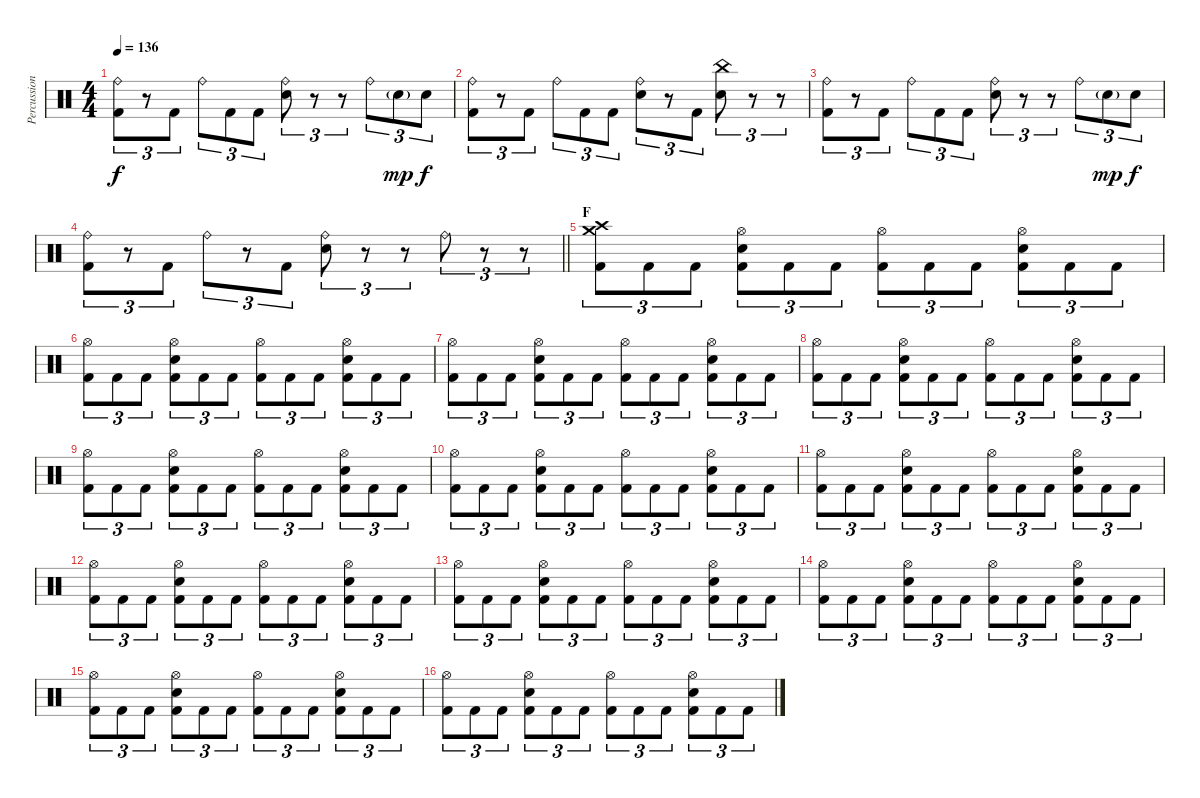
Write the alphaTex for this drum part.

\track ("Percussion" "Percussion") {instrument percussion}
\staff {score}
\articulation defaults
\ts (4 4)
\tempo 136
\clef neutral
\ks c
("Ride (bell)" "Kick (hit) 2").8{tu (3 2) dy f} r.8{tu (3 2)} "Kick (hit) 2".8{tu (3 2)} "Ride (bell)".8{tu (3 2)} "Kick (hit) 2".8{tu (3 2)} "Kick (hit) 2".8{tu (3 2)} ("Ride (bell)" "Electric Snare (hit)").8{tu (3 2)} r.8{tu (3 2)} r.8{tu (3 2)} "Ride (bell)".8{tu (3 2)} "Electric Snare (hit)"{g}.8{tu (3 2) dy mp} "Electric Snare (hit)".8{tu (3 2) dy f} |
("Ride (bell)" "Kick (hit) 2").8{tu (3 2)} r.8{tu (3 2)} "Kick (hit) 2".8{tu (3 2)} "Ride (bell)".8{tu (3 2)} "Kick (hit) 2".8{tu (3 2)} "Kick (hit) 2".8{tu (3 2)} ("Ride (bell)" "Electric Snare (hit)").8{tu (3 2)} r.8{tu (3 2)} "Kick (hit) 2".8{tu (3 2)} ("China (hit)" "Electric Snare (hit)").8{tu (3 2)} r.8{tu (3 2)} r.8{tu (3 2)} |
("Ride (bell)" "Kick (hit) 2").8{tu (3 2)} r.8{tu (3 2)} "Kick (hit) 2".8{tu (3 2)} "Ride (bell)".8{tu (3 2)} "Kick (hit) 2".8{tu (3 2)} "Kick (hit) 2".8{tu (3 2)} ("Ride (bell)" "Electric Snare (hit)").8{tu (3 2)} r.8{tu (3 2)} r.8{tu (3 2)} "Ride (bell)".8{tu (3 2)} "Electric Snare (hit)"{g}.8{tu (3 2) dy mp} "Electric Snare (hit)".8{tu (3 2) dy f} |
\barLineRight lightlight
("Ride (bell)" "Kick (hit) 2").8{tu (3 2)} r.8{tu (3 2)} "Kick (hit) 2".8{tu (3 2)} "Ride (bell)".8{tu (3 2)} r.8{tu (3 2)} "Kick (hit) 2".8{tu (3 2)} ("Ride (bell)" "Electric Snare (hit)").8{tu (3 2)} r.8{tu (3 2)} r.8{tu (3 2)} "Ride (bell)".8{tu (3 2)} r.8{tu (3 2)} r.8{tu (3 2)} |
\section ("" "F")
("Crash medium (hit)" "Crash high (hit)" "Kick (hit) 2").8{tu (3 2)} "Kick (hit) 2".8{tu (3 2)} "Kick (hit) 2".8{tu (3 2)} ("Hi-Hat (open)" "Electric Snare (hit)" "Kick (hit) 2").8{tu (3 2)} "Kick (hit) 2".8{tu (3 2)} "Kick (hit) 2".8{tu (3 2)} ("Hi-Hat (open)" "Kick (hit) 2").8{tu (3 2)} "Kick (hit) 2".8{tu (3 2)} "Kick (hit) 2".8{tu (3 2)} ("Hi-Hat (open)" "Electric Snare (hit)" "Kick (hit) 2").8{tu (3 2)} "Kick (hit) 2".8{tu (3 2)} "Kick (hit) 2".8{tu (3 2)} |
("Hi-Hat (open)" "Kick (hit) 2").8{tu (3 2)} "Kick (hit) 2".8{tu (3 2)} "Kick (hit) 2".8{tu (3 2)} ("Hi-Hat (open)" "Electric Snare (hit)" "Kick (hit) 2").8{tu (3 2)} "Kick (hit) 2".8{tu (3 2)} "Kick (hit) 2".8{tu (3 2)} ("Hi-Hat (open)" "Kick (hit) 2").8{tu (3 2)} "Kick (hit) 2".8{tu (3 2)} "Kick (hit) 2".8{tu (3 2)} ("Hi-Hat (open)" "Electric Snare (hit)" "Kick (hit) 2").8{tu (3 2)} "Kick (hit) 2".8{tu (3 2)} "Kick (hit) 2".8{tu (3 2)} |
("Hi-Hat (open)" "Kick (hit) 2").8{tu (3 2)} "Kick (hit) 2".8{tu (3 2)} "Kick (hit) 2".8{tu (3 2)} ("Hi-Hat (open)" "Electric Snare (hit)" "Kick (hit) 2").8{tu (3 2)} "Kick (hit) 2".8{tu (3 2)} "Kick (hit) 2".8{tu (3 2)} ("Hi-Hat (open)" "Kick (hit) 2").8{tu (3 2)} "Kick (hit) 2".8{tu (3 2)} "Kick (hit) 2".8{tu (3 2)} ("Hi-Hat (open)" "Electric Snare (hit)" "Kick (hit) 2").8{tu (3 2)} "Kick (hit) 2".8{tu (3 2)} "Kick (hit) 2".8{tu (3 2)} |
("Hi-Hat (open)" "Kick (hit) 2").8{tu (3 2)} "Kick (hit) 2".8{tu (3 2)} "Kick (hit) 2".8{tu (3 2)} ("Hi-Hat (open)" "Electric Snare (hit)" "Kick (hit) 2").8{tu (3 2)} "Kick (hit) 2".8{tu (3 2)} "Kick (hit) 2".8{tu (3 2)} ("Hi-Hat (open)" "Kick (hit) 2").8{tu (3 2)} "Kick (hit) 2".8{tu (3 2)} "Kick (hit) 2".8{tu (3 2)} ("Hi-Hat (open)" "Electric Snare (hit)" "Kick (hit) 2").8{tu (3 2)} "Kick (hit) 2".8{tu (3 2)} "Kick (hit) 2".8{tu (3 2)} |
("Hi-Hat (open)" "Kick (hit) 2").8{tu (3 2)} "Kick (hit) 2".8{tu (3 2)} "Kick (hit) 2".8{tu (3 2)} ("Hi-Hat (open)" "Electric Snare (hit)" "Kick (hit) 2").8{tu (3 2)} "Kick (hit) 2".8{tu (3 2)} "Kick (hit) 2".8{tu (3 2)} ("Hi-Hat (open)" "Kick (hit) 2").8{tu (3 2)} "Kick (hit) 2".8{tu (3 2)} "Kick (hit) 2".8{tu (3 2)} ("Hi-Hat (open)" "Electric Snare (hit)" "Kick (hit) 2").8{tu (3 2)} "Kick (hit) 2".8{tu (3 2)} "Kick (hit) 2".8{tu (3 2)} |
("Hi-Hat (open)" "Kick (hit) 2").8{tu (3 2)} "Kick (hit) 2".8{tu (3 2)} "Kick (hit) 2".8{tu (3 2)} ("Hi-Hat (open)" "Electric Snare (hit)" "Kick (hit) 2").8{tu (3 2)} "Kick (hit) 2".8{tu (3 2)} "Kick (hit) 2".8{tu (3 2)} ("Hi-Hat (open)" "Kick (hit) 2").8{tu (3 2)} "Kick (hit) 2".8{tu (3 2)} "Kick (hit) 2".8{tu (3 2)} ("Hi-Hat (open)" "Electric Snare (hit)" "Kick (hit) 2").8{tu (3 2)} "Kick (hit) 2".8{tu (3 2)} "Kick (hit) 2".8{tu (3 2)} |
("Hi-Hat (open)" "Kick (hit) 2").8{tu (3 2)} "Kick (hit) 2".8{tu (3 2)} "Kick (hit) 2".8{tu (3 2)} ("Hi-Hat (open)" "Electric Snare (hit)" "Kick (hit) 2").8{tu (3 2)} "Kick (hit) 2".8{tu (3 2)} "Kick (hit) 2".8{tu (3 2)} ("Hi-Hat (open)" "Kick (hit) 2").8{tu (3 2)} "Kick (hit) 2".8{tu (3 2)} "Kick (hit) 2".8{tu (3 2)} ("Hi-Hat (open)" "Electric Snare (hit)" "Kick (hit) 2").8{tu (3 2)} "Kick (hit) 2".8{tu (3 2)} "Kick (hit) 2".8{tu (3 2)} |
("Hi-Hat (open)" "Kick (hit) 2").8{tu (3 2)} "Kick (hit) 2".8{tu (3 2)} "Kick (hit) 2".8{tu (3 2)} ("Hi-Hat (open)" "Electric Snare (hit)" "Kick (hit) 2").8{tu (3 2)} "Kick (hit) 2".8{tu (3 2)} "Kick (hit) 2".8{tu (3 2)} ("Hi-Hat (open)" "Kick (hit) 2").8{tu (3 2)} "Kick (hit) 2".8{tu (3 2)} "Kick (hit) 2".8{tu (3 2)} ("Hi-Hat (open)" "Electric Snare (hit)" "Kick (hit) 2").8{tu (3 2)} "Kick (hit) 2".8{tu (3 2)} "Kick (hit) 2".8{tu (3 2)} |
("Hi-Hat (open)" "Kick (hit) 2").8{tu (3 2)} "Kick (hit) 2".8{tu (3 2)} "Kick (hit) 2".8{tu (3 2)} ("Hi-Hat (open)" "Electric Snare (hit)" "Kick (hit) 2").8{tu (3 2)} "Kick (hit) 2".8{tu (3 2)} "Kick (hit) 2".8{tu (3 2)} ("Hi-Hat (open)" "Kick (hit) 2").8{tu (3 2)} "Kick (hit) 2".8{tu (3 2)} "Kick (hit) 2".8{tu (3 2)} ("Hi-Hat (open)" "Electric Snare (hit)" "Kick (hit) 2").8{tu (3 2)} "Kick (hit) 2".8{tu (3 2)} "Kick (hit) 2".8{tu (3 2)} |
("Hi-Hat (open)" "Kick (hit) 2").8{tu (3 2)} "Kick (hit) 2".8{tu (3 2)} "Kick (hit) 2".8{tu (3 2)} ("Hi-Hat (open)" "Electric Snare (hit)" "Kick (hit) 2").8{tu (3 2)} "Kick (hit) 2".8{tu (3 2)} "Kick (hit) 2".8{tu (3 2)} ("Hi-Hat (open)" "Kick (hit) 2").8{tu (3 2)} "Kick (hit) 2".8{tu (3 2)} "Kick (hit) 2".8{tu (3 2)} ("Hi-Hat (open)" "Electric Snare (hit)" "Kick (hit) 2").8{tu (3 2)} "Kick (hit) 2".8{tu (3 2)} "Kick (hit) 2".8{tu (3 2)} |
("Hi-Hat (open)" "Kick (hit) 2").8{tu (3 2)} "Kick (hit) 2".8{tu (3 2)} "Kick (hit) 2".8{tu (3 2)} ("Hi-Hat (open)" "Electric Snare (hit)" "Kick (hit) 2").8{tu (3 2)} "Kick (hit) 2".8{tu (3 2)} "Kick (hit) 2".8{tu (3 2)} ("Hi-Hat (open)" "Kick (hit) 2").8{tu (3 2)} "Kick (hit) 2".8{tu (3 2)} "Kick (hit) 2".8{tu (3 2)} ("Hi-Hat (open)" "Electric Snare (hit)" "Kick (hit) 2").8{tu (3 2)} "Kick (hit) 2".8{tu (3 2)} "Kick (hit) 2".8{tu (3 2)} |
("Hi-Hat (open)" "Kick (hit) 2").8{tu (3 2)} "Kick (hit) 2".8{tu (3 2)} "Kick (hit) 2".8{tu (3 2)} ("Hi-Hat (open)" "Electric Snare (hit)" "Kick (hit) 2").8{tu (3 2)} "Kick (hit) 2".8{tu (3 2)} "Kick (hit) 2".8{tu (3 2)} ("Hi-Hat (open)" "Kick (hit) 2").8{tu (3 2)} "Kick (hit) 2".8{tu (3 2)} "Kick (hit) 2".8{tu (3 2)} ("Hi-Hat (open)" "Electric Snare (hit)" "Kick (hit) 2").8{tu (3 2)} "Kick (hit) 2".8{tu (3 2)} "Kick (hit) 2".8{tu (3 2)}
